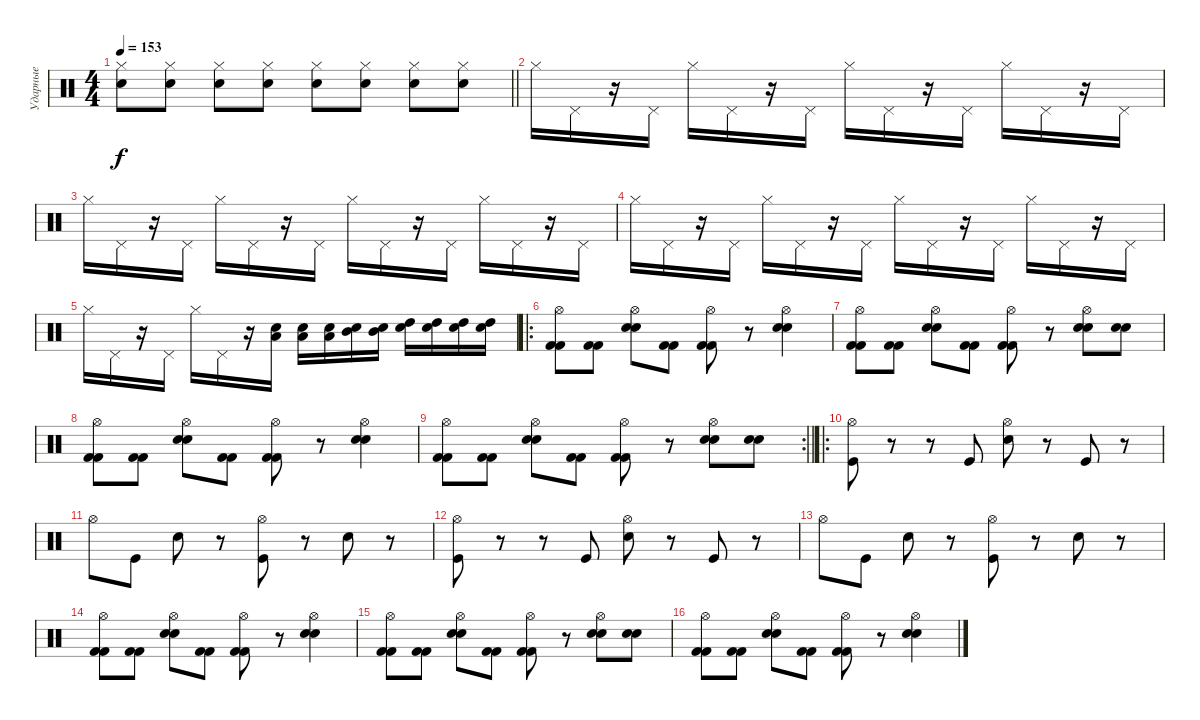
\track ("Ударные" "Ударные") {instrument percussion}
\staff {score}
\articulation defaults
\ts (4 4)
\tempo 153
\clef neutral
\barLineRight lightlight
\ks c
("Hi-Hat (closed)" "Snare (hit) 2").8{dy f} ("Hi-Hat (closed)" "Snare (hit) 2").8 ("Hi-Hat (closed)" "Snare (hit) 2").8 ("Hi-Hat (closed)" "Snare (hit) 2").8 ("Hi-Hat (closed)" "Snare (hit) 2").8 ("Hi-Hat (closed)" "Snare (hit) 2").8 ("Hi-Hat (closed)" "Snare (hit) 2").8 ("Hi-Hat (closed)" "Snare (hit) 2").8 |
"Hi-Hat (closed)".16 "Pedal Hi-Hat (hit)".16 r.16 "Pedal Hi-Hat (hit)".16 "Hi-Hat (closed)".16 "Pedal Hi-Hat (hit)".16 r.16 "Pedal Hi-Hat (hit)".16 "Hi-Hat (closed)".16 "Pedal Hi-Hat (hit)".16 r.16 "Pedal Hi-Hat (hit)".16 "Hi-Hat (closed)".16 "Pedal Hi-Hat (hit)".16 r.16 "Pedal Hi-Hat (hit)".16 |
"Hi-Hat (closed)".16 "Pedal Hi-Hat (hit)".16 r.16 "Pedal Hi-Hat (hit)".16 "Hi-Hat (closed)".16 "Pedal Hi-Hat (hit)".16 r.16 "Pedal Hi-Hat (hit)".16 "Hi-Hat (closed)".16 "Pedal Hi-Hat (hit)".16 r.16 "Pedal Hi-Hat (hit)".16 "Hi-Hat (closed)".16 "Pedal Hi-Hat (hit)".16 r.16 "Pedal Hi-Hat (hit)".16 |
"Hi-Hat (closed)".16 "Pedal Hi-Hat (hit)".16 r.16 "Pedal Hi-Hat (hit)".16 "Hi-Hat (closed)".16 "Pedal Hi-Hat (hit)".16 r.16 "Pedal Hi-Hat (hit)".16 "Hi-Hat (closed)".16 "Pedal Hi-Hat (hit)".16 r.16 "Pedal Hi-Hat (hit)".16 "Hi-Hat (closed)".16 "Pedal Hi-Hat (hit)".16 r.16 "Pedal Hi-Hat (hit)".16 |
"Hi-Hat (closed)".16 "Pedal Hi-Hat (hit)".16 r.16 "Pedal Hi-Hat (hit)".16 "Hi-Hat (closed)".16 "Pedal Hi-Hat (hit)".16 r.16 ("Low Tom (hit)" "Snare (hit) 2").16 ("Low Tom (hit)" "Snare (hit) 2").16 ("Low Tom (hit)" "Snare (hit) 2").16 ("Mid Tom (hit)" "Snare (hit) 2").16 ("Mid Tom (hit)" "Snare (hit) 2").16 ("High Tom (hit)" "Snare (hit) 2").16 ("High Tom (hit)" "Snare (hit) 2").16 ("High Tom (hit)" "Snare (hit) 2").16 ("High Tom (hit)" "Snare (hit) 2").16 |
\ro
("Kick (hit) 2" "Kick (hit) 2" "Hi-Hat (open)").8 ("Kick (hit) 2" "Kick (hit) 2").8 ("Electric Snare (hit)" "Electric Snare (hit)" "Hi-Hat (open)").8 ("Kick (hit) 2" "Kick (hit) 2").8 ("Kick (hit) 2" "Kick (hit) 2" "Hi-Hat (open)").8 r.8 ("Electric Snare (hit)" "Electric Snare (hit)" "Hi-Hat (open)").4 |
("Kick (hit) 2" "Kick (hit) 2" "Hi-Hat (open)").8 ("Kick (hit) 2" "Kick (hit) 2").8 ("Electric Snare (hit)" "Electric Snare (hit)" "Hi-Hat (open)").8 ("Kick (hit) 2" "Kick (hit) 2").8 ("Kick (hit) 2" "Kick (hit) 2" "Hi-Hat (open)").8 r.8 ("Electric Snare (hit)" "Electric Snare (hit)" "Hi-Hat (open)").8 ("Electric Snare (hit)" "Electric Snare (hit)").8 |
("Kick (hit) 2" "Kick (hit) 2" "Hi-Hat (open)").8 ("Kick (hit) 2" "Kick (hit) 2").8 ("Electric Snare (hit)" "Electric Snare (hit)" "Hi-Hat (open)").8 ("Kick (hit) 2" "Kick (hit) 2").8 ("Kick (hit) 2" "Kick (hit) 2" "Hi-Hat (open)").8 r.8 ("Electric Snare (hit)" "Electric Snare (hit)" "Hi-Hat (open)").4 |
\rc 2
\barLineRight lightlight
("Kick (hit) 2" "Kick (hit) 2" "Hi-Hat (open)").8 ("Kick (hit) 2" "Kick (hit) 2").8 ("Electric Snare (hit)" "Electric Snare (hit)" "Hi-Hat (open)").8 ("Kick (hit) 2" "Kick (hit) 2").8 ("Kick (hit) 2" "Kick (hit) 2" "Hi-Hat (open)").8 r.8 ("Electric Snare (hit)" "Electric Snare (hit)" "Hi-Hat (open)").8 ("Electric Snare (hit)" "Electric Snare (hit)").8 |
\ro
\section ("" "")
("Hi-Hat (open)" "Kick (hit)").8 r.8 r.8 "Kick (hit)".8 ("Hi-Hat (open)" "Electric Snare (hit)").8 r.8 "Kick (hit)".8 r.8 |
"Hi-Hat (open)".8 "Kick (hit)".8 "Electric Snare (hit)".8 r.8 ("Hi-Hat (open)" "Kick (hit)").8 r.8 "Electric Snare (hit)".8 r.8 |
("Hi-Hat (open)" "Kick (hit)").8 r.8 r.8 "Kick (hit)".8 ("Hi-Hat (open)" "Electric Snare (hit)").8 r.8 "Kick (hit)".8 r.8 |
"Hi-Hat (open)".8 "Kick (hit)".8 "Electric Snare (hit)".8 r.8 ("Hi-Hat (open)" "Kick (hit)").8 r.8 "Electric Snare (hit)".8 r.8 |
("Kick (hit) 2" "Kick (hit) 2" "Hi-Hat (open)").8 ("Kick (hit) 2" "Kick (hit) 2").8 ("Electric Snare (hit)" "Electric Snare (hit)" "Hi-Hat (open)").8 ("Kick (hit) 2" "Kick (hit) 2").8 ("Kick (hit) 2" "Kick (hit) 2" "Hi-Hat (open)").8 r.8 ("Electric Snare (hit)" "Electric Snare (hit)" "Hi-Hat (open)").4 |
("Kick (hit) 2" "Kick (hit) 2" "Hi-Hat (open)").8 ("Kick (hit) 2" "Kick (hit) 2").8 ("Electric Snare (hit)" "Electric Snare (hit)" "Hi-Hat (open)").8 ("Kick (hit) 2" "Kick (hit) 2").8 ("Kick (hit) 2" "Kick (hit) 2" "Hi-Hat (open)").8 r.8 ("Electric Snare (hit)" "Electric Snare (hit)" "Hi-Hat (open)").8 ("Electric Snare (hit)" "Electric Snare (hit)").8 |
("Kick (hit) 2" "Kick (hit) 2" "Hi-Hat (open)").8 ("Kick (hit) 2" "Kick (hit) 2").8 ("Electric Snare (hit)" "Electric Snare (hit)" "Hi-Hat (open)").8 ("Kick (hit) 2" "Kick (hit) 2").8 ("Kick (hit) 2" "Kick (hit) 2" "Hi-Hat (open)").8 r.8 ("Electric Snare (hit)" "Electric Snare (hit)" "Hi-Hat (open)").4
